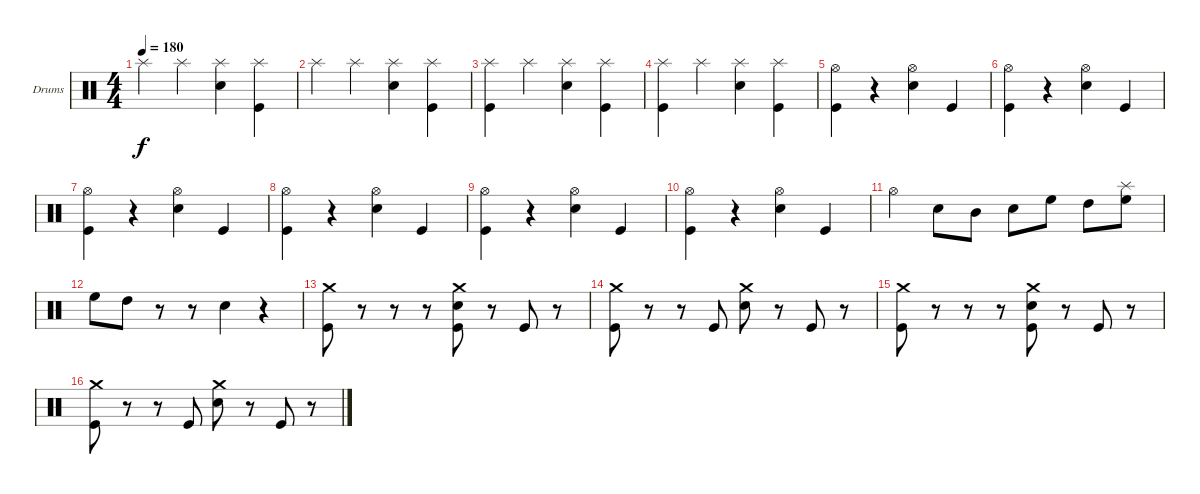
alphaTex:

\defaultSystemsLayout 4
\bracketExtendMode groupsimilarinstruments
\firstSystemTrackNameOrientation horizontal
\otherSystemsTrackNameOrientation horizontal
\track ("Drumkit" "Drums") {instrument percussion}
\staff {score}
\articulation defaults
\ts (4 4)
\tempo 180
\clef neutral
\ks c "Splash (hit)".4{dy f} "Splash (hit)".4
("Splash (hit)" "Snare (hit) 2").4 ("Splash (hit)" "Kick (hit)").4 |
"Splash (hit)".4 "Splash (hit)".4 ("Splash (hit)" "Snare (hit) 2").4 ("Splash (hit)" "Kick (hit)").4 |
("Splash (hit)" "Kick (hit)").4 "Splash (hit)".4 ("Splash (hit)" "Snare (hit) 2").4 ("Splash (hit)" "Kick (hit)").4 |
("Splash (hit)" "Kick (hit)").4 "Splash (hit)".4 ("Splash (hit)" "Snare (hit) 2").4 ("Splash (hit)" "Kick (hit)").4 |
("Hi-Hat (open)" "Kick (hit)").4 r.4 ("Hi-Hat (open)" "Snare (hit) 2").4 "Kick (hit)".4 |
("Hi-Hat (open)" "Kick (hit)").4 r.4 ("Hi-Hat (open)" "Snare (hit) 2").4 "Kick (hit)".4 |
("Hi-Hat (open)" "Kick (hit)").4 r.4 ("Hi-Hat (open)" "Snare (hit) 2").4 "Kick (hit)".4 |
("Hi-Hat (open)" "Kick (hit)").4 r.4 ("Hi-Hat (open)" "Snare (hit) 2").4 "Kick (hit)".4 |
("Hi-Hat (open)" "Kick (hit)").4 r.4 ("Hi-Hat (open)" "Snare (hit) 2").4 "Kick (hit)".4 |
("Hi-Hat (open)" "Kick (hit)").4 r.4 ("Hi-Hat (open)" "Snare (hit) 2").4 "Kick (hit)".4 |
"Hi-Hat (open)".4 "Snare (hit) 2".8 "Mid Tom (hit)".8 "Snare (hit) 2".8 "High Floor Tom (hit)".8 "High Tom (hit)".8 ("Splash (hit)" "High Floor Tom (hit)").8 |
"High Floor Tom (hit)".8 "High Tom (hit)".8 r.8 r.8 "Snare (hit) 2".4 r.4 |
("Crash medium (hit)" "Kick (hit)").8 r.8 r.8 r.8 ("Crash medium (hit)" "Snare (hit) 2" "Kick (hit)").8 r.8 "Kick (hit)".8 r.8 |
("Crash medium (hit)" "Kick (hit)").8 r.8 r.8 "Kick (hit)".8 ("Crash medium (hit)" "Snare (hit) 2").8 r.8 "Kick (hit)".8 r.8 |
("Crash medium (hit)" "Kick (hit)").8 r.8 r.8 r.8 ("Crash medium (hit)" "Snare (hit) 2" "Kick (hit)").8 r.8 "Kick (hit)".8 r.8 |
("Crash medium (hit)" "Kick (hit)").8 r.8 r.8 "Kick (hit)".8 ("Crash medium (hit)" "Snare (hit) 2").8 r.8 "Kick (hit)".8 r.8
